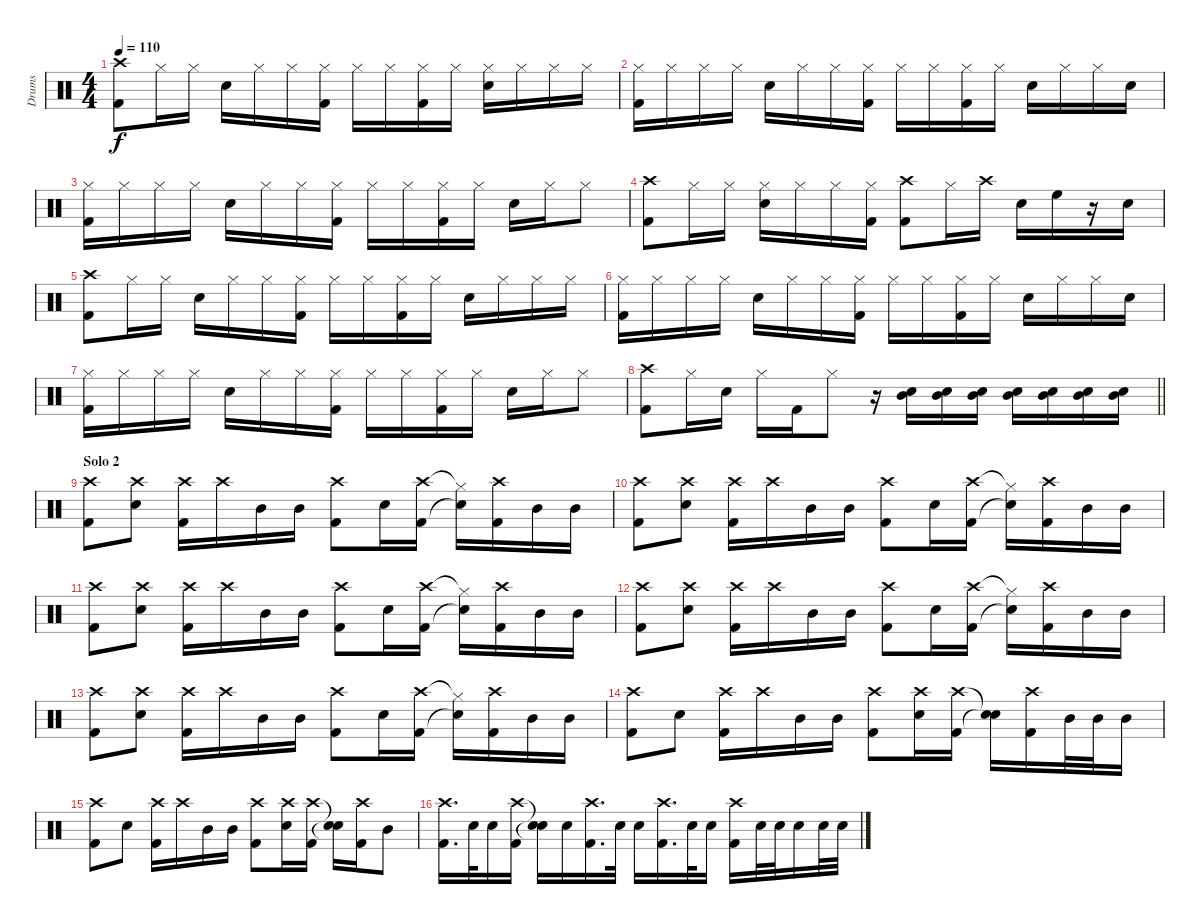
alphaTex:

\track ("Drums" "Drums") {instrument percussion}
\staff {score}
\articulation defaults
\ts (4 4)
\tempo 110
\clef neutral
\ks c
("Crash high (hit)" "Kick (hit) 2").8{dy f} "Hi-Hat (closed)".16 "Hi-Hat (closed)".16 "Snare (hit) 2".16 "Hi-Hat (closed)".16 "Hi-Hat (closed)".16 ("Hi-Hat (closed)" "Kick (hit) 2").16 "Hi-Hat (closed)".16 "Hi-Hat (closed)".16 ("Hi-Hat (closed)" "Kick (hit) 2").16 "Hi-Hat (closed)".16 ("Hi-Hat (closed)" "Snare (hit) 2").16 "Hi-Hat (closed)".16 "Hi-Hat (closed)".16 "Hi-Hat (closed)".16 |
("Hi-Hat (closed)" "Kick (hit) 2").16 "Hi-Hat (closed)".16 "Hi-Hat (closed)".16 "Hi-Hat (closed)".16 "Snare (hit) 2".16 "Hi-Hat (closed)".16 "Hi-Hat (closed)".16 ("Hi-Hat (closed)" "Kick (hit) 2").16 "Hi-Hat (closed)".16 "Hi-Hat (closed)".16 ("Hi-Hat (closed)" "Kick (hit) 2").16 "Hi-Hat (closed)".16 "Snare (hit) 2".16 "Hi-Hat (closed)".16 "Hi-Hat (closed)".16 "Snare (hit) 2".16 |
("Hi-Hat (closed)" "Kick (hit) 2").16 "Hi-Hat (closed)".16 "Hi-Hat (closed)".16 "Hi-Hat (closed)".16 "Snare (hit) 2".16 "Hi-Hat (closed)".16 "Hi-Hat (closed)".16 ("Hi-Hat (closed)" "Kick (hit) 2").16 "Hi-Hat (closed)".16 "Hi-Hat (closed)".16 ("Hi-Hat (closed)" "Kick (hit) 2").16 "Hi-Hat (closed)".16 "Snare (hit) 2".16 "Hi-Hat (closed)".16 "Hi-Hat (closed)".8 |
("Crash high (hit)" "Kick (hit) 2").8 "Hi-Hat (closed)".16 "Hi-Hat (closed)".16 ("Hi-Hat (closed)" "Snare (hit) 2").16 "Hi-Hat (closed)".16 "Hi-Hat (closed)".16 ("Hi-Hat (closed)" "Kick (hit) 2").16 ("Crash high (hit)" "Kick (hit) 2").8 "Hi-Hat (closed)".16 "Crash high (hit)".16 "Snare (hit) 2".16 "High Floor Tom (hit)".16 r.16 "Snare (hit) 2".16 |
("Crash high (hit)" "Kick (hit) 2").8 "Hi-Hat (closed)".16 "Hi-Hat (closed)".16 "Snare (hit) 2".16 "Hi-Hat (closed)".16 "Hi-Hat (closed)".16 ("Hi-Hat (closed)" "Kick (hit) 2").16 "Hi-Hat (closed)".16 "Hi-Hat (closed)".16 ("Hi-Hat (closed)" "Kick (hit) 2").16 "Hi-Hat (closed)".16 "Snare (hit) 2".16 "Hi-Hat (closed)".16 "Hi-Hat (closed)".16 "Hi-Hat (closed)".16 |
("Hi-Hat (closed)" "Kick (hit) 2").16 "Hi-Hat (closed)".16 "Hi-Hat (closed)".16 "Hi-Hat (closed)".16 "Snare (hit) 2".16 "Hi-Hat (closed)".16 "Hi-Hat (closed)".16 ("Hi-Hat (closed)" "Kick (hit) 2").16 "Hi-Hat (closed)".16 "Hi-Hat (closed)".16 ("Hi-Hat (closed)" "Kick (hit) 2").16 "Hi-Hat (closed)".16 "Snare (hit) 2".16 "Hi-Hat (closed)".16 "Hi-Hat (closed)".16 "Snare (hit) 2".16 |
("Hi-Hat (closed)" "Kick (hit) 2").16 "Hi-Hat (closed)".16 "Hi-Hat (closed)".16 "Hi-Hat (closed)".16 "Snare (hit) 2".16 "Hi-Hat (closed)".16 "Hi-Hat (closed)".16 ("Hi-Hat (closed)" "Kick (hit) 2").16 "Hi-Hat (closed)".16 "Hi-Hat (closed)".16 ("Hi-Hat (closed)" "Kick (hit) 2").16 "Hi-Hat (closed)".16 "Snare (hit) 2".16 "Hi-Hat (closed)".16 "Hi-Hat (closed)".8 |
\barLineRight lightlight
("Crash high (hit)" "Kick (hit) 2").8 "Hi-Hat (closed)".16 "Snare (hit) 2".16 "Hi-Hat (closed)".16 "Kick (hit) 2".16 "Hi-Hat (closed)".8 r.16 ("Snare (hit) 2" "Mid Tom (hit)").16 ("Snare (hit) 2" "Mid Tom (hit)").16 ("Snare (hit) 2" "Mid Tom (hit)").16 ("Snare (hit) 2" "Mid Tom (hit)").16 ("Snare (hit) 2" "Mid Tom (hit)").16 ("Snare (hit) 2" "Mid Tom (hit)").16 ("Snare (hit) 2" "Mid Tom (hit)").16 |
\section ("" "Solo 2")
("Crash high (hit)" "Kick (hit) 2").8 ("Crash high (hit)" "Snare (hit) 2").8 ("Crash high (hit)" "Kick (hit) 2").16 "Crash high (hit)".16 "Mid Tom (hit)".16 "Mid Tom (hit)".16 ("Crash high (hit)" "Kick (hit) 2").8 "Snare (hit) 2".16 ("Crash high (hit)" "Kick (hit) 2").16 ("Hi-Hat (closed)"{t} "Snare (hit)"{t}).16 ("Crash high (hit)" "Kick (hit) 2").16 "Mid Tom (hit)".16 "Mid Tom (hit)".16 |
("Crash high (hit)" "Kick (hit) 2").8 ("Crash high (hit)" "Snare (hit) 2").8 ("Crash high (hit)" "Kick (hit) 2").16 "Crash high (hit)".16 "Mid Tom (hit)".16 "Mid Tom (hit)".16 ("Crash high (hit)" "Kick (hit) 2").8 "Snare (hit) 2".16 ("Crash high (hit)" "Kick (hit) 2").16 ("Hi-Hat (closed)"{t} "Snare (hit)"{t}).16 ("Crash high (hit)" "Kick (hit) 2").16 "Mid Tom (hit)".16 "Mid Tom (hit)".16 |
("Crash high (hit)" "Kick (hit) 2").8 ("Crash high (hit)" "Snare (hit) 2").8 ("Crash high (hit)" "Kick (hit) 2").16 "Crash high (hit)".16 "Mid Tom (hit)".16 "Mid Tom (hit)".16 ("Crash high (hit)" "Kick (hit) 2").8 "Snare (hit) 2".16 ("Crash high (hit)" "Kick (hit) 2").16 ("Hi-Hat (closed)"{t} "Snare (hit)"{t}).16 ("Crash high (hit)" "Kick (hit) 2").16 "Mid Tom (hit)".16 "Mid Tom (hit)".16 |
("Crash high (hit)" "Kick (hit) 2").8 ("Crash high (hit)" "Snare (hit) 2").8 ("Crash high (hit)" "Kick (hit) 2").16 "Crash high (hit)".16 "Mid Tom (hit)".16 "Mid Tom (hit)".16 ("Crash high (hit)" "Kick (hit) 2").8 "Snare (hit) 2".16 ("Crash high (hit)" "Kick (hit) 2").16 ("Hi-Hat (closed)"{t} "Snare (hit)"{t}).16 ("Crash high (hit)" "Kick (hit) 2").16 "Mid Tom (hit)".16 "Mid Tom (hit)".16 |
("Crash high (hit)" "Kick (hit) 2").8 ("Crash high (hit)" "Snare (hit) 2").8 ("Crash high (hit)" "Kick (hit) 2").16 "Crash high (hit)".16 "Mid Tom (hit)".16 "Mid Tom (hit)".16 ("Crash high (hit)" "Kick (hit) 2").8 "Snare (hit) 2".16 ("Crash high (hit)" "Kick (hit) 2").16 ("Hi-Hat (closed)"{t} "Snare (hit)"{t}).16 ("Crash high (hit)" "Kick (hit) 2").16 "Mid Tom (hit)".16 "Mid Tom (hit)".16 |
("Crash high (hit)" "Kick (hit) 2").8 "Snare (hit) 2".8 ("Crash high (hit)" "Kick (hit) 2").16 "Crash high (hit)".16 "Mid Tom (hit)".16 "Mid Tom (hit)".16 ("Crash high (hit)" "Kick (hit) 2").8 ("Crash high (hit)" "Snare (hit) 2").16 ("Crash high (hit)" "Kick (hit) 2").16 ("Snare (hit)"{t} "Snare (hit)"{t}).16 ("Crash high (hit)" "Kick (hit) 2").16 "Mid Tom (hit)".32 "Mid Tom (hit)".32 "Mid Tom (hit)".16 |
("Crash high (hit)" "Kick (hit) 2").8 "Snare (hit) 2".8 ("Crash high (hit)" "Kick (hit) 2").16 "Crash high (hit)".16 "Mid Tom (hit)".16 "Mid Tom (hit)".16 ("Crash high (hit)" "Kick (hit) 2").8 ("Crash high (hit)" "Snare (hit) 2").16 ("Crash high (hit)" "Kick (hit) 2").16 ("Snare (hit)"{t} "Snare (hit)"{t}).16 ("Crash high (hit)" "Kick (hit) 2").16 "Mid Tom (hit)".8 |
("Crash high (hit)" "Kick (hit) 2").16{d} "Snare (hit) 2".32 "Snare (hit) 2".16 ("Crash high (hit)" "Kick (hit) 2").16 ("Snare (hit)"{t} "Snare (hit)"{t}).16 "Snare (hit) 2".16 ("Crash high (hit)" "Kick (hit) 2").16{d} "Snare (hit) 2".32 "Snare (hit) 2".16 ("Crash high (hit)" "Kick (hit) 2").16{d} "Snare (hit) 2".32 "Snare (hit) 2".16 ("Crash high (hit)" "Kick (hit) 2").16 "Snare (hit) 2".32 "Snare (hit) 2".32 "Snare (hit) 2".16 "Snare (hit) 2".32 "Snare (hit) 2".32
